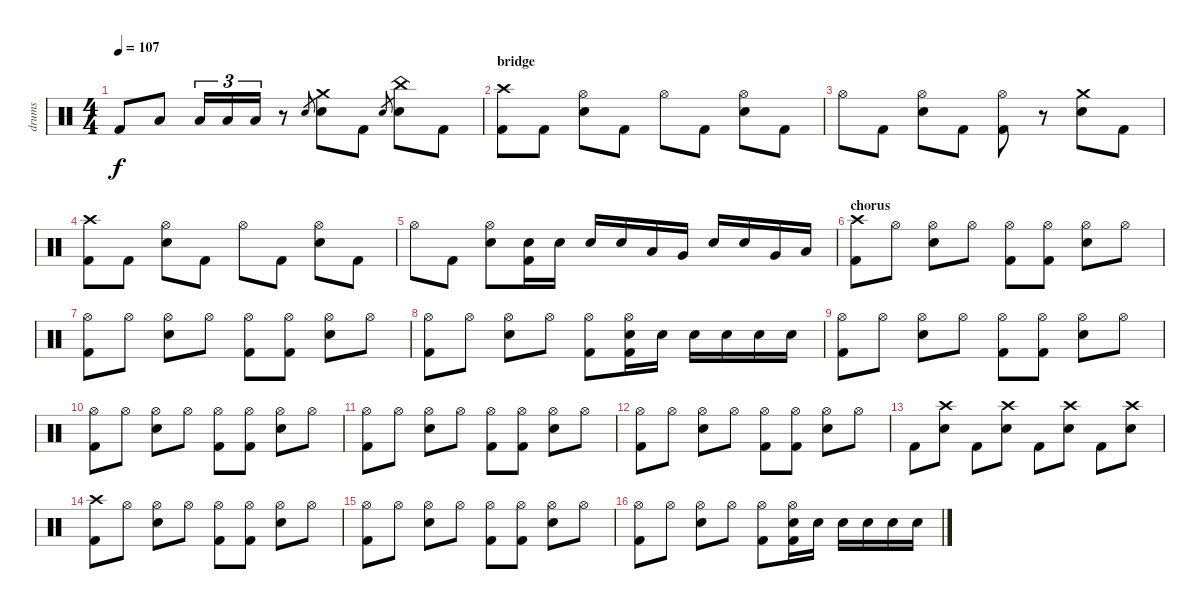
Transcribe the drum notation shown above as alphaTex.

\track ("drums" "drums") {instrument percussion}
\staff {score}
\articulation defaults
\ts (4 4)
\tempo 107
\clef neutral
\ks c "Kick (hit) 2".8{dy f} "Low Floor Tom (hit)".8 "Low Floor Tom (hit)".16{tu (3 2)} "Low Floor Tom (hit)".16{tu (3 2)} "Low Floor Tom (hit)".16{tu (3 2)}
r.8 "Electric Snare (hit)".8{gr} ("Crash medium (hit)" "Electric Snare (hit)").8 "Kick (hit) 2".8 "Electric Snare (hit)".8{gr} ("China (hit)" "Electric Snare (hit)").8 "Kick (hit) 2".8 |
\section ("" "bridge")
("Crash high (hit)" "Kick (hit) 2").8 "Kick (hit) 2".8 ("Hi-Hat (open)" "Electric Snare (hit)").8 "Kick (hit) 2".8 "Hi-Hat (open)".8 "Kick (hit) 2".8 ("Hi-Hat (open)" "Electric Snare (hit)").8 "Kick (hit) 2".8 |
"Hi-Hat (open)".8 "Kick (hit) 2".8 ("Hi-Hat (open)" "Electric Snare (hit)").8 "Kick (hit) 2".8 ("Hi-Hat (open)" "Kick (hit) 2").8 r.8 ("Crash medium (hit)" "Electric Snare (hit)").8 "Kick (hit) 2".8 |
("Crash high (hit)" "Kick (hit) 2").8 "Kick (hit) 2".8 ("Hi-Hat (open)" "Electric Snare (hit)").8 "Kick (hit) 2".8 "Hi-Hat (open)".8 "Kick (hit) 2".8 ("Hi-Hat (open)" "Electric Snare (hit)").8 "Kick (hit) 2".8 |
"Hi-Hat (open)".8 "Kick (hit) 2".8 ("Hi-Hat (open)" "Electric Snare (hit)").8 ("Electric Snare (hit)" "Kick (hit) 2").16 "Electric Snare (hit)".16 "Electric Snare (hit)".16 "Electric Snare (hit)".16 "Low Tom (hit)".16 "Very Low Tom (hit)".16 "Electric Snare (hit)".16 "Electric Snare (hit)".16 "Very Low Tom (hit)".16 "Low Floor Tom (hit)".16 |
\section ("" "chorus")
("Crash high (hit)" "Kick (hit) 2").8 "Hi-Hat (open)".8 ("Hi-Hat (open)" "Electric Snare (hit)").8 "Hi-Hat (open)".8 ("Hi-Hat (open)" "Kick (hit) 2").8 ("Hi-Hat (open)" "Kick (hit) 2").8 ("Hi-Hat (open)" "Electric Snare (hit)").8 "Hi-Hat (open)".8 |
("Hi-Hat (open)" "Kick (hit) 2").8 "Hi-Hat (open)".8 ("Hi-Hat (open)" "Electric Snare (hit)").8 "Hi-Hat (open)".8 ("Hi-Hat (open)" "Kick (hit) 2").8 ("Hi-Hat (open)" "Kick (hit) 2").8 ("Hi-Hat (open)" "Electric Snare (hit)").8 "Hi-Hat (open)".8 |
("Hi-Hat (open)" "Kick (hit) 2").8 "Hi-Hat (open)".8 ("Hi-Hat (open)" "Electric Snare (hit)").8 "Hi-Hat (open)".8 ("Hi-Hat (open)" "Kick (hit) 2").8 ("Hi-Hat (open)" "Electric Snare (hit)" "Kick (hit) 2").16 "Electric Snare (hit)".16 "Electric Snare (hit)".16 "Electric Snare (hit)".16 "Electric Snare (hit)".16 "Electric Snare (hit)".16 |
("Hi-Hat (open)" "Kick (hit) 2").8 "Hi-Hat (open)".8 ("Hi-Hat (open)" "Electric Snare (hit)").8 "Hi-Hat (open)".8 ("Hi-Hat (open)" "Kick (hit) 2").8 ("Hi-Hat (open)" "Kick (hit) 2").8 ("Hi-Hat (open)" "Electric Snare (hit)").8 "Hi-Hat (open)".8 |
("Hi-Hat (open)" "Kick (hit) 2").8 "Hi-Hat (open)".8 ("Hi-Hat (open)" "Electric Snare (hit)").8 "Hi-Hat (open)".8 ("Hi-Hat (open)" "Kick (hit) 2").8 ("Hi-Hat (open)" "Kick (hit) 2").8 ("Hi-Hat (open)" "Electric Snare (hit)").8 "Hi-Hat (open)".8 |
("Hi-Hat (open)" "Kick (hit) 2").8 "Hi-Hat (open)".8 ("Hi-Hat (open)" "Electric Snare (hit)").8 "Hi-Hat (open)".8 ("Hi-Hat (open)" "Kick (hit) 2").8 ("Hi-Hat (open)" "Kick (hit) 2").8 ("Hi-Hat (open)" "Electric Snare (hit)").8 "Hi-Hat (open)".8 |
("Hi-Hat (open)" "Kick (hit) 2").8 "Hi-Hat (open)".8 ("Hi-Hat (open)" "Electric Snare (hit)").8 "Hi-Hat (open)".8 ("Hi-Hat (open)" "Kick (hit) 2").8 ("Hi-Hat (open)" "Kick (hit) 2").8 ("Hi-Hat (open)" "Electric Snare (hit)").8 "Hi-Hat (open)".8 |
"Kick (hit) 2".8 ("Crash high (hit)" "Electric Snare (hit)").8 "Kick (hit) 2".8 ("Crash high (hit)" "Electric Snare (hit)").8 "Kick (hit) 2".8 ("Crash high (hit)" "Electric Snare (hit)").8 "Kick (hit) 2".8 ("Crash high (hit)" "Electric Snare (hit)").8 |
("Crash high (hit)" "Kick (hit) 2").8 "Hi-Hat (open)".8 ("Hi-Hat (open)" "Electric Snare (hit)").8 "Hi-Hat (open)".8 ("Hi-Hat (open)" "Kick (hit) 2").8 ("Hi-Hat (open)" "Kick (hit) 2").8 ("Hi-Hat (open)" "Electric Snare (hit)").8 "Hi-Hat (open)".8 |
("Hi-Hat (open)" "Kick (hit) 2").8 "Hi-Hat (open)".8 ("Hi-Hat (open)" "Electric Snare (hit)").8 "Hi-Hat (open)".8 ("Hi-Hat (open)" "Kick (hit) 2").8 ("Hi-Hat (open)" "Kick (hit) 2").8 ("Hi-Hat (open)" "Electric Snare (hit)").8 "Hi-Hat (open)".8 |
("Hi-Hat (open)" "Kick (hit) 2").8 "Hi-Hat (open)".8 ("Hi-Hat (open)" "Electric Snare (hit)").8 "Hi-Hat (open)".8 ("Hi-Hat (open)" "Kick (hit) 2").8 ("Hi-Hat (open)" "Electric Snare (hit)" "Kick (hit) 2").16 "Electric Snare (hit)".16 "Electric Snare (hit)".16 "Electric Snare (hit)".16 "Electric Snare (hit)".16 "Electric Snare (hit)".16
